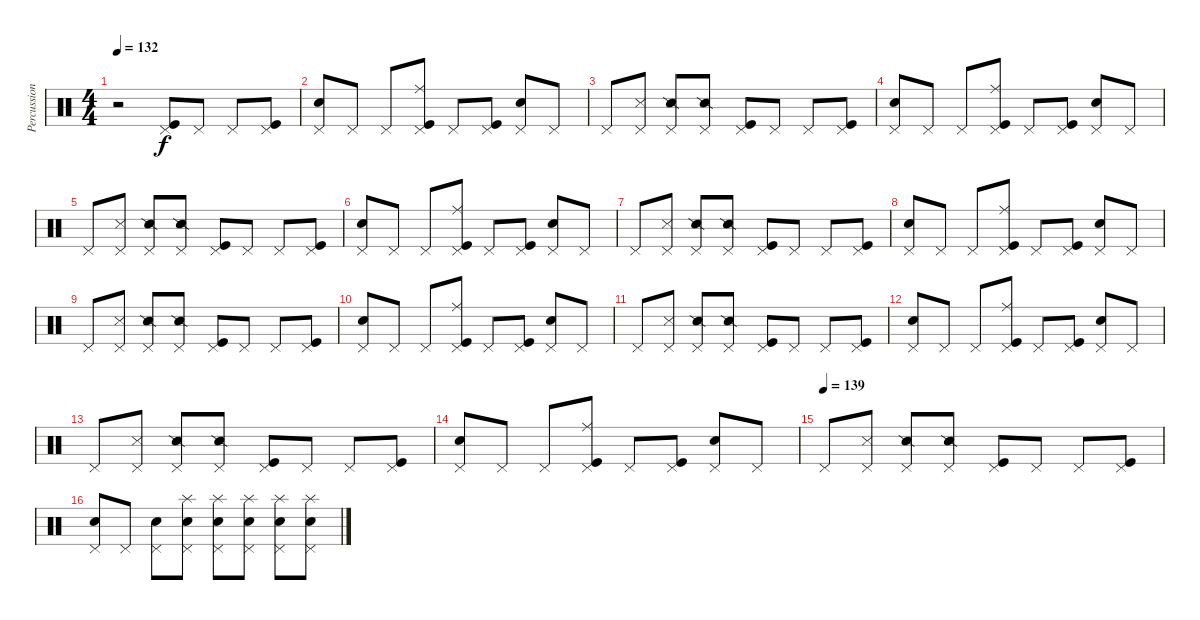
\track ("Percussion" "Percussion") {instrument percussion}
\staff {score}
\articulation defaults
\ts (4 4)
\tempo 132
\clef neutral
\ks c
r.2{dy f} ("Kick (hit)" "Pedal Hi-Hat (hit)").8 "Pedal Hi-Hat (hit)".8 "Pedal Hi-Hat (hit)".8 ("Kick (hit)" "Pedal Hi-Hat (hit)").8 |
("Electric Snare (hit)" "Pedal Hi-Hat (hit)").8 "Pedal Hi-Hat (hit)".8 "Pedal Hi-Hat (hit)".8 ("Ride (middle)" "Kick (hit)" "Pedal Hi-Hat (hit)").8 "Pedal Hi-Hat (hit)".8 ("Kick (hit)" "Pedal Hi-Hat (hit)").8 ("Electric Snare (hit)" "Pedal Hi-Hat (hit)").8 "Pedal Hi-Hat (hit)".8 |
"Pedal Hi-Hat (hit)".8 ("Snare (side stick) 3" "Pedal Hi-Hat (hit)").8 ("Snare (side stick) 2" "Pedal Hi-Hat (hit)").8 ("Snare (side stick) 2" "Pedal Hi-Hat (hit)").8 ("Kick (hit)" "Pedal Hi-Hat (hit)").8 "Pedal Hi-Hat (hit)".8 "Pedal Hi-Hat (hit)".8 ("Kick (hit)" "Pedal Hi-Hat (hit)").8 |
("Electric Snare (hit)" "Pedal Hi-Hat (hit)").8 "Pedal Hi-Hat (hit)".8 "Pedal Hi-Hat (hit)".8 ("Ride (middle)" "Kick (hit)" "Pedal Hi-Hat (hit)").8 "Pedal Hi-Hat (hit)".8 ("Kick (hit)" "Pedal Hi-Hat (hit)").8 ("Electric Snare (hit)" "Pedal Hi-Hat (hit)").8 "Pedal Hi-Hat (hit)".8 |
"Pedal Hi-Hat (hit)".8 ("Snare (side stick) 3" "Pedal Hi-Hat (hit)").8 ("Snare (side stick) 2" "Pedal Hi-Hat (hit)").8 ("Snare (side stick) 2" "Pedal Hi-Hat (hit)").8 ("Kick (hit)" "Pedal Hi-Hat (hit)").8 "Pedal Hi-Hat (hit)".8 "Pedal Hi-Hat (hit)".8 ("Kick (hit)" "Pedal Hi-Hat (hit)").8 |
("Electric Snare (hit)" "Pedal Hi-Hat (hit)").8 "Pedal Hi-Hat (hit)".8 "Pedal Hi-Hat (hit)".8 ("Ride (middle)" "Kick (hit)" "Pedal Hi-Hat (hit)").8 "Pedal Hi-Hat (hit)".8 ("Kick (hit)" "Pedal Hi-Hat (hit)").8 ("Electric Snare (hit)" "Pedal Hi-Hat (hit)").8 "Pedal Hi-Hat (hit)".8 |
"Pedal Hi-Hat (hit)".8 ("Snare (side stick) 3" "Pedal Hi-Hat (hit)").8 ("Snare (side stick) 2" "Pedal Hi-Hat (hit)").8 ("Snare (side stick) 2" "Pedal Hi-Hat (hit)").8 ("Kick (hit)" "Pedal Hi-Hat (hit)").8 "Pedal Hi-Hat (hit)".8 "Pedal Hi-Hat (hit)".8 ("Kick (hit)" "Pedal Hi-Hat (hit)").8 |
("Electric Snare (hit)" "Pedal Hi-Hat (hit)").8 "Pedal Hi-Hat (hit)".8 "Pedal Hi-Hat (hit)".8 ("Ride (middle)" "Kick (hit)" "Pedal Hi-Hat (hit)").8 "Pedal Hi-Hat (hit)".8 ("Kick (hit)" "Pedal Hi-Hat (hit)").8 ("Electric Snare (hit)" "Pedal Hi-Hat (hit)").8 "Pedal Hi-Hat (hit)".8 |
"Pedal Hi-Hat (hit)".8 ("Snare (side stick) 3" "Pedal Hi-Hat (hit)").8 ("Snare (side stick) 2" "Pedal Hi-Hat (hit)").8 ("Snare (side stick) 2" "Pedal Hi-Hat (hit)").8 ("Kick (hit)" "Pedal Hi-Hat (hit)").8 "Pedal Hi-Hat (hit)".8 "Pedal Hi-Hat (hit)".8 ("Kick (hit)" "Pedal Hi-Hat (hit)").8 |
("Electric Snare (hit)" "Pedal Hi-Hat (hit)").8 "Pedal Hi-Hat (hit)".8 "Pedal Hi-Hat (hit)".8 ("Ride (middle)" "Kick (hit)" "Pedal Hi-Hat (hit)").8 "Pedal Hi-Hat (hit)".8 ("Kick (hit)" "Pedal Hi-Hat (hit)").8 ("Electric Snare (hit)" "Pedal Hi-Hat (hit)").8 "Pedal Hi-Hat (hit)".8 |
"Pedal Hi-Hat (hit)".8 ("Snare (side stick) 3" "Pedal Hi-Hat (hit)").8 ("Snare (side stick) 2" "Pedal Hi-Hat (hit)").8 ("Snare (side stick) 2" "Pedal Hi-Hat (hit)").8 ("Kick (hit)" "Pedal Hi-Hat (hit)").8 "Pedal Hi-Hat (hit)".8 "Pedal Hi-Hat (hit)".8 ("Kick (hit)" "Pedal Hi-Hat (hit)").8 |
("Electric Snare (hit)" "Pedal Hi-Hat (hit)").8 "Pedal Hi-Hat (hit)".8 "Pedal Hi-Hat (hit)".8 ("Ride (middle)" "Kick (hit)" "Pedal Hi-Hat (hit)").8 "Pedal Hi-Hat (hit)".8 ("Kick (hit)" "Pedal Hi-Hat (hit)").8 ("Electric Snare (hit)" "Pedal Hi-Hat (hit)").8 "Pedal Hi-Hat (hit)".8 |
"Pedal Hi-Hat (hit)".8 ("Snare (side stick) 3" "Pedal Hi-Hat (hit)").8 ("Snare (side stick) 2" "Pedal Hi-Hat (hit)").8 ("Snare (side stick) 2" "Pedal Hi-Hat (hit)").8 ("Kick (hit)" "Pedal Hi-Hat (hit)").8 "Pedal Hi-Hat (hit)".8 "Pedal Hi-Hat (hit)".8 ("Kick (hit)" "Pedal Hi-Hat (hit)").8 |
("Electric Snare (hit)" "Pedal Hi-Hat (hit)").8 "Pedal Hi-Hat (hit)".8 "Pedal Hi-Hat (hit)".8 ("Ride (middle)" "Kick (hit)" "Pedal Hi-Hat (hit)").8 "Pedal Hi-Hat (hit)".8 ("Kick (hit)" "Pedal Hi-Hat (hit)").8 ("Electric Snare (hit)" "Pedal Hi-Hat (hit)").8 "Pedal Hi-Hat (hit)".8 |
\tempo (139)
"Pedal Hi-Hat (hit)".8 ("Snare (side stick) 3" "Pedal Hi-Hat (hit)").8 ("Snare (side stick) 2" "Pedal Hi-Hat (hit)").8 ("Snare (side stick) 2" "Pedal Hi-Hat (hit)").8 ("Kick (hit)" "Pedal Hi-Hat (hit)").8 "Pedal Hi-Hat (hit)".8 "Pedal Hi-Hat (hit)".8 ("Kick (hit)" "Pedal Hi-Hat (hit)").8 |
("Electric Snare (hit)" "Pedal Hi-Hat (hit)").8 "Pedal Hi-Hat (hit)".8 ("Electric Snare (hit)" "Pedal Hi-Hat (hit)").8 ("Splash (hit)" "Electric Snare (hit)" "Pedal Hi-Hat (hit)").8 ("Splash (hit)" "Electric Snare (hit)" "Pedal Hi-Hat (hit)").8 ("Splash (hit)" "Electric Snare (hit)" "Pedal Hi-Hat (hit)").8 ("Splash (hit)" "Electric Snare (hit)" "Pedal Hi-Hat (hit)").8 ("Splash (hit)" "Electric Snare (hit)" "Pedal Hi-Hat (hit)").8
